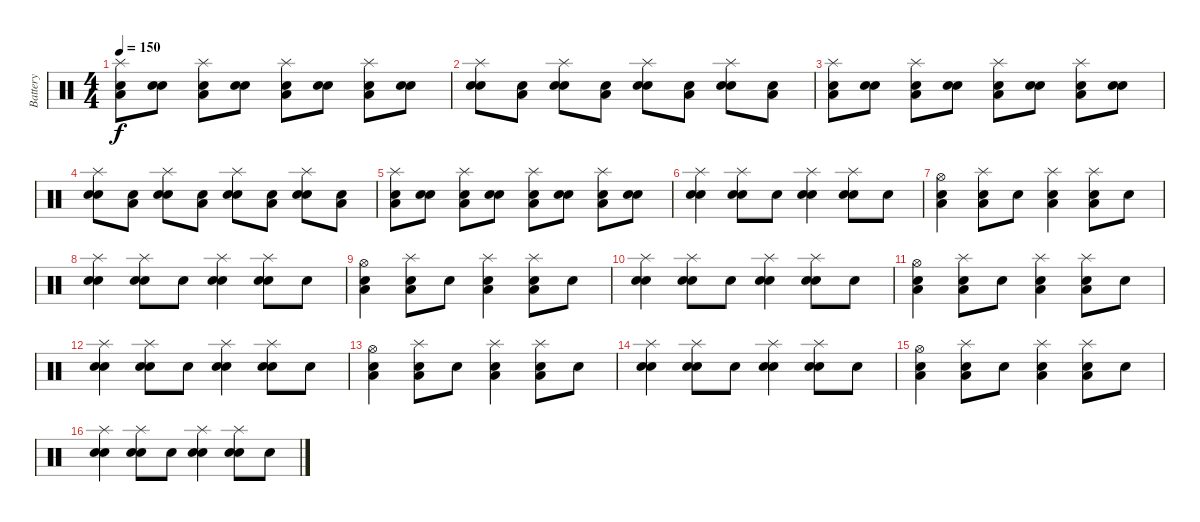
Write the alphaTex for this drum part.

\track ("Battery" "Battery") {instrument percussion}
\staff {score}
\articulation defaults
\ts (4 4)
\tempo 150
\clef neutral
\ks c
("Snare (hit) 2" "Splash (hit)" "Low Floor Tom (hit)").8{dy f} ("Snare (hit) 2" "Electric Snare (hit)").8 ("Snare (hit) 2" "Splash (hit)" "Low Floor Tom (hit)").8 ("Snare (hit) 2" "Electric Snare (hit)").8 ("Snare (hit) 2" "Splash (hit)" "Low Floor Tom (hit)").8 ("Snare (hit) 2" "Electric Snare (hit)").8 ("Snare (hit) 2" "Splash (hit)" "Low Floor Tom (hit)").8 ("Snare (hit) 2" "Electric Snare (hit)").8 |
("Snare (hit) 2" "Splash (hit)" "Electric Snare (hit)").8 ("Snare (hit) 2" "Low Floor Tom (hit)").8 ("Snare (hit) 2" "Splash (hit)" "Electric Snare (hit)").8 ("Snare (hit) 2" "Low Floor Tom (hit)").8 ("Snare (hit) 2" "Splash (hit)" "Electric Snare (hit)").8 ("Snare (hit) 2" "Low Floor Tom (hit)").8 ("Snare (hit) 2" "Splash (hit)" "Electric Snare (hit)").8 ("Snare (hit) 2" "Low Floor Tom (hit)").8 |
("Snare (hit) 2" "Splash (hit)" "Low Floor Tom (hit)").8 ("Snare (hit) 2" "Electric Snare (hit)").8 ("Snare (hit) 2" "Splash (hit)" "Low Floor Tom (hit)").8 ("Snare (hit) 2" "Electric Snare (hit)").8 ("Snare (hit) 2" "Splash (hit)" "Low Floor Tom (hit)").8 ("Snare (hit) 2" "Electric Snare (hit)").8 ("Snare (hit) 2" "Splash (hit)" "Low Floor Tom (hit)").8 ("Snare (hit) 2" "Electric Snare (hit)").8 |
("Snare (hit) 2" "Splash (hit)" "Electric Snare (hit)").8 ("Snare (hit) 2" "Low Floor Tom (hit)").8 ("Snare (hit) 2" "Splash (hit)" "Electric Snare (hit)").8 ("Snare (hit) 2" "Low Floor Tom (hit)").8 ("Snare (hit) 2" "Splash (hit)" "Electric Snare (hit)").8 ("Snare (hit) 2" "Low Floor Tom (hit)").8 ("Snare (hit) 2" "Splash (hit)" "Electric Snare (hit)").8 ("Snare (hit) 2" "Low Floor Tom (hit)").8 |
("Snare (hit) 2" "Splash (hit)" "Low Floor Tom (hit)").8 ("Snare (hit) 2" "Electric Snare (hit)").8 ("Snare (hit) 2" "Splash (hit)" "Low Floor Tom (hit)").8 ("Snare (hit) 2" "Electric Snare (hit)").8 ("Snare (hit) 2" "Splash (hit)" "Low Floor Tom (hit)").8 ("Snare (hit) 2" "Electric Snare (hit)").8 ("Snare (hit) 2" "Splash (hit)" "Low Floor Tom (hit)").8 ("Snare (hit) 2" "Electric Snare (hit)").8 |
("Snare (hit) 2" "Electric Snare (hit)" "Splash (hit)").4 ("Snare (hit) 2" "Electric Snare (hit)" "Splash (hit)").8 "Snare (hit) 2".8 ("Snare (hit) 2" "Electric Snare (hit)" "Splash (hit)").4 ("Snare (hit) 2" "Electric Snare (hit)" "Splash (hit)").8 "Snare (hit) 2".8 |
("Snare (hit) 2" "Low Floor Tom (hit)" "Hi-Hat (open)").4 ("Snare (hit) 2" "Low Floor Tom (hit)" "Splash (hit)").8 "Snare (hit) 2".8 ("Snare (hit) 2" "Low Floor Tom (hit)" "Splash (hit)").4 ("Snare (hit) 2" "Low Floor Tom (hit)" "Splash (hit)").8 "Snare (hit) 2".8 |
("Snare (hit) 2" "Electric Snare (hit)" "Splash (hit)").4 ("Snare (hit) 2" "Electric Snare (hit)" "Splash (hit)").8 "Snare (hit) 2".8 ("Snare (hit) 2" "Electric Snare (hit)" "Splash (hit)").4 ("Snare (hit) 2" "Electric Snare (hit)" "Splash (hit)").8 "Snare (hit) 2".8 |
("Snare (hit) 2" "Low Floor Tom (hit)" "Hi-Hat (open)").4 ("Snare (hit) 2" "Low Floor Tom (hit)" "Splash (hit)").8 "Snare (hit) 2".8 ("Snare (hit) 2" "Low Floor Tom (hit)" "Splash (hit)").4 ("Snare (hit) 2" "Low Floor Tom (hit)" "Splash (hit)").8 "Snare (hit) 2".8 |
("Snare (hit) 2" "Electric Snare (hit)" "Splash (hit)").4 ("Snare (hit) 2" "Electric Snare (hit)" "Splash (hit)").8 "Snare (hit) 2".8 ("Snare (hit) 2" "Electric Snare (hit)" "Splash (hit)").4 ("Snare (hit) 2" "Electric Snare (hit)" "Splash (hit)").8 "Snare (hit) 2".8 |
("Snare (hit) 2" "Low Floor Tom (hit)" "Hi-Hat (open)").4 ("Snare (hit) 2" "Low Floor Tom (hit)" "Splash (hit)").8 "Snare (hit) 2".8 ("Snare (hit) 2" "Low Floor Tom (hit)" "Splash (hit)").4 ("Snare (hit) 2" "Low Floor Tom (hit)" "Splash (hit)").8 "Snare (hit) 2".8 |
("Snare (hit) 2" "Electric Snare (hit)" "Splash (hit)").4 ("Snare (hit) 2" "Electric Snare (hit)" "Splash (hit)").8 "Snare (hit) 2".8 ("Snare (hit) 2" "Electric Snare (hit)" "Splash (hit)").4 ("Snare (hit) 2" "Electric Snare (hit)" "Splash (hit)").8 "Snare (hit) 2".8 |
("Snare (hit) 2" "Low Floor Tom (hit)" "Hi-Hat (open)").4 ("Snare (hit) 2" "Low Floor Tom (hit)" "Splash (hit)").8 "Snare (hit) 2".8 ("Snare (hit) 2" "Low Floor Tom (hit)" "Splash (hit)").4 ("Snare (hit) 2" "Low Floor Tom (hit)" "Splash (hit)").8 "Snare (hit) 2".8 |
("Snare (hit) 2" "Electric Snare (hit)" "Splash (hit)").4 ("Snare (hit) 2" "Electric Snare (hit)" "Splash (hit)").8 "Snare (hit) 2".8 ("Snare (hit) 2" "Electric Snare (hit)" "Splash (hit)").4 ("Snare (hit) 2" "Electric Snare (hit)" "Splash (hit)").8 "Snare (hit) 2".8 |
("Snare (hit) 2" "Low Floor Tom (hit)" "Hi-Hat (open)").4 ("Snare (hit) 2" "Low Floor Tom (hit)" "Splash (hit)").8 "Snare (hit) 2".8 ("Snare (hit) 2" "Low Floor Tom (hit)" "Splash (hit)").4 ("Snare (hit) 2" "Low Floor Tom (hit)" "Splash (hit)").8 "Snare (hit) 2".8 |
("Snare (hit) 2" "Electric Snare (hit)" "Splash (hit)").4 ("Snare (hit) 2" "Electric Snare (hit)" "Splash (hit)").8 "Snare (hit) 2".8 ("Snare (hit) 2" "Electric Snare (hit)" "Splash (hit)").4 ("Snare (hit) 2" "Electric Snare (hit)" "Splash (hit)").8 "Snare (hit) 2".8
